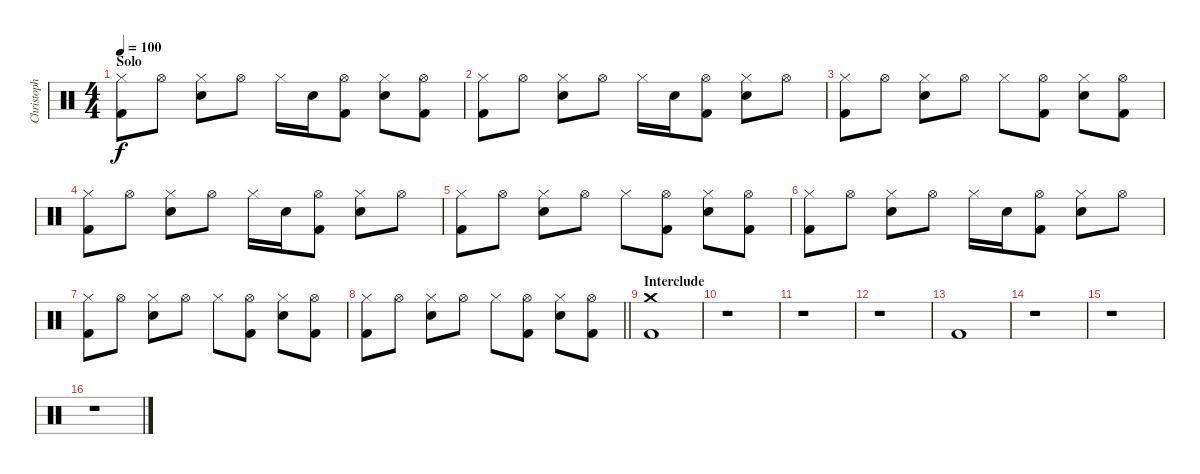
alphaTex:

\track ("Christoph - Drums" "Christoph ") {instrument percussion}
\staff {score}
\articulation defaults
\ts (4 4)
\section ("" "Solo")
\tempo 100
\clef neutral
\ks c
("Hi-Hat (closed)" "Kick (hit) 2").8{dy f} "Hi-Hat (open)".8 ("Hi-Hat (closed)" "Snare (hit) 2").8 "Hi-Hat (open)".8 "Hi-Hat (closed)".16 "Snare (hit) 2".16 ("Hi-Hat (open)" "Kick (hit) 2").8 ("Hi-Hat (closed)" "Snare (hit) 2").8 ("Hi-Hat (open)" "Kick (hit) 2").8 |
("Hi-Hat (closed)" "Kick (hit) 2").8 "Hi-Hat (open)".8 ("Hi-Hat (closed)" "Snare (hit) 2").8 "Hi-Hat (open)".8 "Hi-Hat (closed)".16 "Snare (hit) 2".16 ("Hi-Hat (open)" "Kick (hit) 2").8 ("Hi-Hat (closed)" "Snare (hit) 2").8 "Hi-Hat (open)".8 |
("Hi-Hat (closed)" "Kick (hit) 2").8 "Hi-Hat (open)".8 ("Hi-Hat (closed)" "Snare (hit) 2").8 "Hi-Hat (open)".8 "Hi-Hat (closed)".8 ("Hi-Hat (open)" "Kick (hit) 2").8 ("Hi-Hat (closed)" "Snare (hit) 2").8 ("Hi-Hat (open)" "Kick (hit) 2").8 |
("Hi-Hat (closed)" "Kick (hit) 2").8 "Hi-Hat (open)".8 ("Hi-Hat (closed)" "Snare (hit) 2").8 "Hi-Hat (open)".8 "Hi-Hat (closed)".16 "Snare (hit) 2".16 ("Hi-Hat (open)" "Kick (hit) 2").8 ("Hi-Hat (closed)" "Snare (hit) 2").8 "Hi-Hat (open)".8 |
("Hi-Hat (closed)" "Kick (hit) 2").8 "Hi-Hat (open)".8 ("Hi-Hat (closed)" "Snare (hit) 2").8 "Hi-Hat (open)".8 "Hi-Hat (closed)".8 ("Hi-Hat (open)" "Kick (hit) 2").8 ("Hi-Hat (closed)" "Snare (hit) 2").8 ("Hi-Hat (open)" "Kick (hit) 2").8 |
("Hi-Hat (closed)" "Kick (hit) 2").8 "Hi-Hat (open)".8 ("Hi-Hat (closed)" "Snare (hit) 2").8 "Hi-Hat (open)".8 "Hi-Hat (closed)".16 "Snare (hit) 2".16 ("Hi-Hat (open)" "Kick (hit) 2").8 ("Hi-Hat (closed)" "Snare (hit) 2").8 "Hi-Hat (open)".8 |
("Hi-Hat (closed)" "Kick (hit) 2").8 "Hi-Hat (open)".8 ("Hi-Hat (closed)" "Snare (hit) 2").8 "Hi-Hat (open)".8 "Hi-Hat (closed)".8 ("Hi-Hat (open)" "Kick (hit) 2").8 ("Hi-Hat (closed)" "Snare (hit) 2").8 ("Hi-Hat (open)" "Kick (hit) 2").8 |
\barLineRight lightlight
("Hi-Hat (closed)" "Kick (hit) 2").8 "Hi-Hat (open)".8 ("Hi-Hat (closed)" "Snare (hit) 2").8 "Hi-Hat (open)".8 "Hi-Hat (closed)".8 ("Hi-Hat (open)" "Kick (hit) 2").8 ("Hi-Hat (closed)" "Snare (hit) 2").8 ("Hi-Hat (open)" "Kick (hit) 2").8 |
\section ("" "Interclude")
("Crash medium (hit)" "Kick (hit) 2").1 |
r.1 |
r.1 |
r.1 |
"Kick (hit) 2".1 |
r.1 |
r.1 |
r.1
